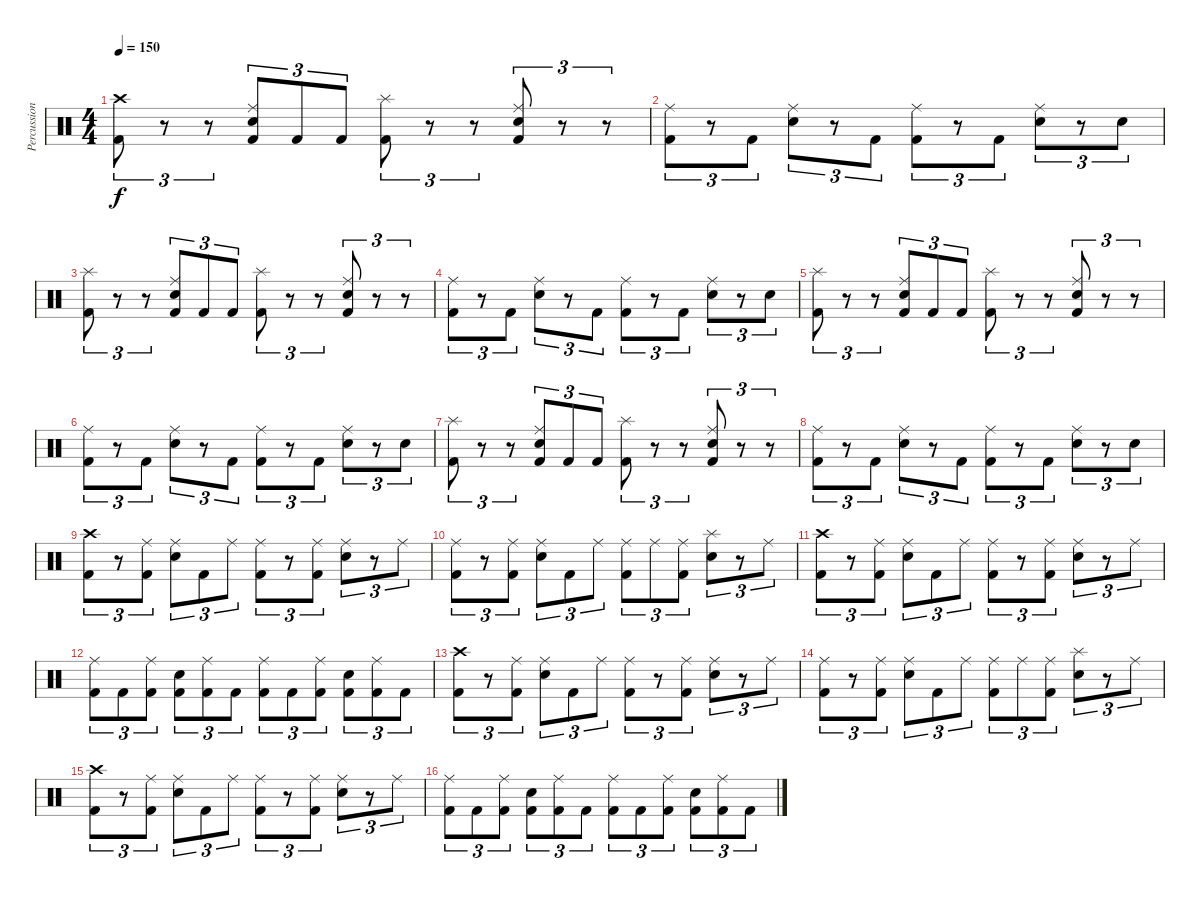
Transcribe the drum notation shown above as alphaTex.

\track ("Percussion" "Percussion") {instrument percussion}
\staff {score}
\articulation defaults
\ts (4 4)
\tempo 150
\clef neutral
\ks c
("Crash high (hit)" "Kick (hit) 2").8{tu (3 2) dy f} r.8{tu (3 2)} r.8{tu (3 2)} ("Ride (middle)" "Snare (hit) 2" "Kick (hit) 2").8{tu (3 2)} "Kick (hit) 2".8{tu (3 2)} "Kick (hit) 2".8{tu (3 2)} ("Splash (hit)" "Kick (hit) 2").8{tu (3 2)} r.8{tu (3 2)} r.8{tu (3 2)} ("Ride (middle)" "Snare (hit) 2" "Kick (hit) 2").8{tu (3 2)} r.8{tu (3 2)} r.8{tu (3 2)} |
("Ride (middle)" "Kick (hit) 2").8{tu (3 2)} r.8{tu (3 2)} "Kick (hit) 2".8{tu (3 2)} ("Ride (middle)" "Snare (hit) 2").8{tu (3 2)} r.8{tu (3 2)} "Kick (hit) 2".8{tu (3 2)} ("Ride (middle)" "Kick (hit) 2").8{tu (3 2)} r.8{tu (3 2)} "Kick (hit) 2".8{tu (3 2)} ("Ride (middle)" "Snare (hit) 2").8{tu (3 2)} r.8{tu (3 2)} "Snare (hit) 2".8{tu (3 2)} |
("Splash (hit)" "Kick (hit) 2").8{tu (3 2)} r.8{tu (3 2)} r.8{tu (3 2)} ("Ride (middle)" "Snare (hit) 2" "Kick (hit) 2").8{tu (3 2)} "Kick (hit) 2".8{tu (3 2)} "Kick (hit) 2".8{tu (3 2)} ("Splash (hit)" "Kick (hit) 2").8{tu (3 2)} r.8{tu (3 2)} r.8{tu (3 2)} ("Ride (middle)" "Snare (hit) 2" "Kick (hit) 2").8{tu (3 2)} r.8{tu (3 2)} r.8{tu (3 2)} |
("Ride (middle)" "Kick (hit) 2").8{tu (3 2)} r.8{tu (3 2)} "Kick (hit) 2".8{tu (3 2)} ("Ride (middle)" "Snare (hit) 2").8{tu (3 2)} r.8{tu (3 2)} "Kick (hit) 2".8{tu (3 2)} ("Ride (middle)" "Kick (hit) 2").8{tu (3 2)} r.8{tu (3 2)} "Kick (hit) 2".8{tu (3 2)} ("Ride (middle)" "Snare (hit) 2").8{tu (3 2)} r.8{tu (3 2)} "Snare (hit) 2".8{tu (3 2)} |
("Splash (hit)" "Kick (hit) 2").8{tu (3 2)} r.8{tu (3 2)} r.8{tu (3 2)} ("Ride (middle)" "Snare (hit) 2" "Kick (hit) 2").8{tu (3 2)} "Kick (hit) 2".8{tu (3 2)} "Kick (hit) 2".8{tu (3 2)} ("Splash (hit)" "Kick (hit) 2").8{tu (3 2)} r.8{tu (3 2)} r.8{tu (3 2)} ("Ride (middle)" "Snare (hit) 2" "Kick (hit) 2").8{tu (3 2)} r.8{tu (3 2)} r.8{tu (3 2)} |
("Ride (middle)" "Kick (hit) 2").8{tu (3 2)} r.8{tu (3 2)} "Kick (hit) 2".8{tu (3 2)} ("Ride (middle)" "Snare (hit) 2").8{tu (3 2)} r.8{tu (3 2)} "Kick (hit) 2".8{tu (3 2)} ("Ride (middle)" "Kick (hit) 2").8{tu (3 2)} r.8{tu (3 2)} "Kick (hit) 2".8{tu (3 2)} ("Ride (middle)" "Snare (hit) 2").8{tu (3 2)} r.8{tu (3 2)} "Snare (hit) 2".8{tu (3 2)} |
("Splash (hit)" "Kick (hit) 2").8{tu (3 2)} r.8{tu (3 2)} r.8{tu (3 2)} ("Ride (middle)" "Snare (hit) 2" "Kick (hit) 2").8{tu (3 2)} "Kick (hit) 2".8{tu (3 2)} "Kick (hit) 2".8{tu (3 2)} ("Splash (hit)" "Kick (hit) 2").8{tu (3 2)} r.8{tu (3 2)} r.8{tu (3 2)} ("Ride (middle)" "Snare (hit) 2" "Kick (hit) 2").8{tu (3 2)} r.8{tu (3 2)} r.8{tu (3 2)} |
("Ride (middle)" "Kick (hit) 2").8{tu (3 2)} r.8{tu (3 2)} "Kick (hit) 2".8{tu (3 2)} ("Ride (middle)" "Snare (hit) 2").8{tu (3 2)} r.8{tu (3 2)} "Kick (hit) 2".8{tu (3 2)} ("Ride (middle)" "Kick (hit) 2").8{tu (3 2)} r.8{tu (3 2)} "Kick (hit) 2".8{tu (3 2)} ("Ride (middle)" "Snare (hit) 2").8{tu (3 2)} r.8{tu (3 2)} "Snare (hit) 2".8{tu (3 2)} |
("Crash high (hit)" "Kick (hit) 2").8{tu (3 2)} r.8{tu (3 2)} ("Ride (middle)" "Kick (hit) 2").8{tu (3 2)} ("Ride (middle)" "Snare (hit) 2").8{tu (3 2)} "Kick (hit) 2".8{tu (3 2)} "Ride (middle)".8{tu (3 2)} ("Ride (middle)" "Kick (hit) 2").8{tu (3 2)} r.8{tu (3 2)} ("Ride (middle)" "Kick (hit) 2").8{tu (3 2)} ("Ride (middle)" "Snare (hit) 2").8{tu (3 2)} r.8{tu (3 2)} "Ride (middle)".8{tu (3 2)} |
("Ride (middle)" "Kick (hit) 2").8{tu (3 2)} r.8{tu (3 2)} ("Ride (middle)" "Kick (hit) 2").8{tu (3 2)} ("Ride (middle)" "Snare (hit) 2").8{tu (3 2)} "Kick (hit) 2".8{tu (3 2)} "Ride (middle)".8{tu (3 2)} ("Ride (middle)" "Kick (hit) 2").8{tu (3 2)} "Ride (middle)".8{tu (3 2)} ("Ride (middle)" "Kick (hit) 2").8{tu (3 2)} ("Splash (hit)" "Snare (hit) 2").8{tu (3 2)} r.8{tu (3 2)} "Ride (middle)".8{tu (3 2)} |
("Crash high (hit)" "Kick (hit) 2").8{tu (3 2)} r.8{tu (3 2)} ("Ride (middle)" "Kick (hit) 2").8{tu (3 2)} ("Ride (middle)" "Snare (hit) 2").8{tu (3 2)} "Kick (hit) 2".8{tu (3 2)} "Ride (middle)".8{tu (3 2)} ("Ride (middle)" "Kick (hit) 2").8{tu (3 2)} r.8{tu (3 2)} ("Ride (middle)" "Kick (hit) 2").8{tu (3 2)} ("Ride (middle)" "Snare (hit) 2").8{tu (3 2)} r.8{tu (3 2)} "Ride (middle)".8{tu (3 2)} |
("Ride (middle)" "Kick (hit) 2").8{tu (3 2)} "Kick (hit) 2".8{tu (3 2)} ("Ride (middle)" "Kick (hit) 2").8{tu (3 2)} ("Snare (hit) 2" "Kick (hit) 2").8{tu (3 2)} ("Ride (middle)" "Kick (hit) 2").8{tu (3 2)} "Kick (hit) 2".8{tu (3 2)} ("Ride (middle)" "Kick (hit) 2").8{tu (3 2)} "Kick (hit) 2".8{tu (3 2)} ("Ride (middle)" "Kick (hit) 2").8{tu (3 2)} ("Snare (hit) 2" "Kick (hit) 2").8{tu (3 2)} ("Ride (middle)" "Kick (hit) 2").8{tu (3 2)} "Kick (hit) 2".8{tu (3 2)} |
("Crash high (hit)" "Kick (hit) 2").8{tu (3 2)} r.8{tu (3 2)} ("Ride (middle)" "Kick (hit) 2").8{tu (3 2)} ("Ride (middle)" "Snare (hit) 2").8{tu (3 2)} "Kick (hit) 2".8{tu (3 2)} "Ride (middle)".8{tu (3 2)} ("Ride (middle)" "Kick (hit) 2").8{tu (3 2)} r.8{tu (3 2)} ("Ride (middle)" "Kick (hit) 2").8{tu (3 2)} ("Ride (middle)" "Snare (hit) 2").8{tu (3 2)} r.8{tu (3 2)} "Ride (middle)".8{tu (3 2)} |
("Ride (middle)" "Kick (hit) 2").8{tu (3 2)} r.8{tu (3 2)} ("Ride (middle)" "Kick (hit) 2").8{tu (3 2)} ("Ride (middle)" "Snare (hit) 2").8{tu (3 2)} "Kick (hit) 2".8{tu (3 2)} "Ride (middle)".8{tu (3 2)} ("Ride (middle)" "Kick (hit) 2").8{tu (3 2)} "Ride (middle)".8{tu (3 2)} ("Ride (middle)" "Kick (hit) 2").8{tu (3 2)} ("Splash (hit)" "Snare (hit) 2").8{tu (3 2)} r.8{tu (3 2)} "Ride (middle)".8{tu (3 2)} |
("Crash high (hit)" "Kick (hit) 2").8{tu (3 2)} r.8{tu (3 2)} ("Ride (middle)" "Kick (hit) 2").8{tu (3 2)} ("Ride (middle)" "Snare (hit) 2").8{tu (3 2)} "Kick (hit) 2".8{tu (3 2)} "Ride (middle)".8{tu (3 2)} ("Ride (middle)" "Kick (hit) 2").8{tu (3 2)} r.8{tu (3 2)} ("Ride (middle)" "Kick (hit) 2").8{tu (3 2)} ("Ride (middle)" "Snare (hit) 2").8{tu (3 2)} r.8{tu (3 2)} "Ride (middle)".8{tu (3 2)} |
("Ride (middle)" "Kick (hit) 2").8{tu (3 2)} "Kick (hit) 2".8{tu (3 2)} ("Ride (middle)" "Kick (hit) 2").8{tu (3 2)} ("Snare (hit) 2" "Kick (hit) 2").8{tu (3 2)} ("Ride (middle)" "Kick (hit) 2").8{tu (3 2)} "Kick (hit) 2".8{tu (3 2)} ("Ride (middle)" "Kick (hit) 2").8{tu (3 2)} "Kick (hit) 2".8{tu (3 2)} ("Ride (middle)" "Kick (hit) 2").8{tu (3 2)} ("Snare (hit) 2" "Kick (hit) 2").8{tu (3 2)} ("Ride (middle)" "Kick (hit) 2").8{tu (3 2)} "Kick (hit) 2".8{tu (3 2)}
